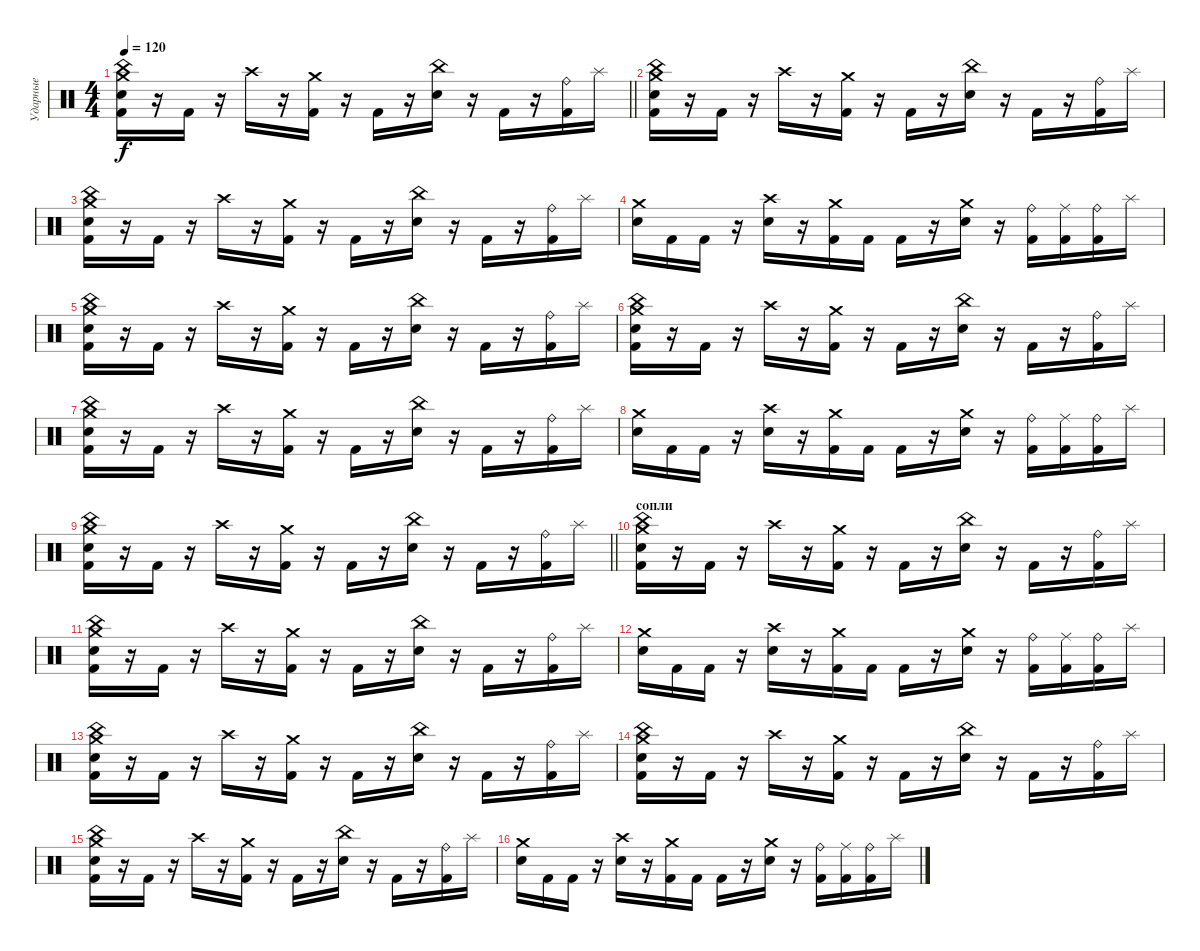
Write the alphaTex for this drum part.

\track ("Ударные" "Ударные") {instrument percussion}
\staff {score}
\articulation defaults
\ts (4 4)
\tempo 120
\clef neutral
\barLineRight lightlight
\ks c
("Crash medium (hit)" "China (hit)" "Electric Snare (hit)" "Kick (hit) 2").16{dy f} r.16 "Kick (hit) 2".16 r.16 "Crash high (hit)".16 r.16 ("Crash medium (hit)" "Kick (hit) 2").16 r.16 "Kick (hit) 2".16 r.16 ("China (hit)" "Electric Snare (hit)").16 r.16 "Kick (hit) 2".16 r.16 ("Ride (bell)" "Kick (hit) 2").16 "Splash (hit)".16 |
("Crash medium (hit)" "China (hit)" "Electric Snare (hit)" "Kick (hit) 2").16 r.16 "Kick (hit) 2".16 r.16 "Crash high (hit)".16 r.16 ("Crash medium (hit)" "Kick (hit) 2").16 r.16 "Kick (hit) 2".16 r.16 ("China (hit)" "Electric Snare (hit)").16 r.16 "Kick (hit) 2".16 r.16 ("Ride (bell)" "Kick (hit) 2").16 "Splash (hit)".16 |
("Crash medium (hit)" "China (hit)" "Electric Snare (hit)" "Kick (hit) 2").16 r.16 "Kick (hit) 2".16 r.16 "Crash high (hit)".16 r.16 ("Crash medium (hit)" "Kick (hit) 2").16 r.16 "Kick (hit) 2".16 r.16 ("China (hit)" "Electric Snare (hit)").16 r.16 "Kick (hit) 2".16 r.16 ("Ride (bell)" "Kick (hit) 2").16 "Splash (hit)".16 |
("Crash medium (hit)" "Electric Snare (hit)").16 "Kick (hit) 2".16 "Kick (hit) 2".16 r.16 ("Crash high (hit)" "Electric Snare (hit)").16 r.16 ("Crash medium (hit)" "Kick (hit) 2").16 "Kick (hit) 2".16 "Kick (hit) 2".16 r.16 ("Crash medium (hit)" "Electric Snare (hit)").16 r.16 ("Ride (bell)" "Kick (hit) 2").16 ("Ride (middle)" "Kick (hit) 2").16 ("Ride (bell)" "Kick (hit) 2").16 "Splash (hit)".16 |
("Crash medium (hit)" "China (hit)" "Electric Snare (hit)" "Kick (hit) 2").16 r.16 "Kick (hit) 2".16 r.16 "Crash high (hit)".16 r.16 ("Crash medium (hit)" "Kick (hit) 2").16 r.16 "Kick (hit) 2".16 r.16 ("China (hit)" "Electric Snare (hit)").16 r.16 "Kick (hit) 2".16 r.16 ("Ride (bell)" "Kick (hit) 2").16 "Splash (hit)".16 |
("Crash medium (hit)" "China (hit)" "Electric Snare (hit)" "Kick (hit) 2").16 r.16 "Kick (hit) 2".16 r.16 "Crash high (hit)".16 r.16 ("Crash medium (hit)" "Kick (hit) 2").16 r.16 "Kick (hit) 2".16 r.16 ("China (hit)" "Electric Snare (hit)").16 r.16 "Kick (hit) 2".16 r.16 ("Ride (bell)" "Kick (hit) 2").16 "Splash (hit)".16 |
("Crash medium (hit)" "China (hit)" "Electric Snare (hit)" "Kick (hit) 2").16 r.16 "Kick (hit) 2".16 r.16 "Crash high (hit)".16 r.16 ("Crash medium (hit)" "Kick (hit) 2").16 r.16 "Kick (hit) 2".16 r.16 ("China (hit)" "Electric Snare (hit)").16 r.16 "Kick (hit) 2".16 r.16 ("Ride (bell)" "Kick (hit) 2").16 "Splash (hit)".16 |
("Crash medium (hit)" "Electric Snare (hit)").16 "Kick (hit) 2".16 "Kick (hit) 2".16 r.16 ("Crash high (hit)" "Electric Snare (hit)").16 r.16 ("Crash medium (hit)" "Kick (hit) 2").16 "Kick (hit) 2".16 "Kick (hit) 2".16 r.16 ("Crash medium (hit)" "Electric Snare (hit)").16 r.16 ("Ride (bell)" "Kick (hit) 2").16 ("Ride (middle)" "Kick (hit) 2").16 ("Ride (bell)" "Kick (hit) 2").16 "Splash (hit)".16 |
\barLineRight lightlight
("Crash medium (hit)" "China (hit)" "Electric Snare (hit)" "Kick (hit) 2").16 r.16 "Kick (hit) 2".16 r.16 "Crash high (hit)".16 r.16 ("Crash medium (hit)" "Kick (hit) 2").16 r.16 "Kick (hit) 2".16 r.16 ("China (hit)" "Electric Snare (hit)").16 r.16 "Kick (hit) 2".16 r.16 ("Ride (bell)" "Kick (hit) 2").16 "Splash (hit)".16 |
\section ("" "сопли")
("Crash medium (hit)" "China (hit)" "Electric Snare (hit)" "Kick (hit) 2").16 r.16 "Kick (hit) 2".16 r.16 "Crash high (hit)".16 r.16 ("Crash medium (hit)" "Kick (hit) 2").16 r.16 "Kick (hit) 2".16 r.16 ("China (hit)" "Electric Snare (hit)").16 r.16 "Kick (hit) 2".16 r.16 ("Ride (bell)" "Kick (hit) 2").16 "Splash (hit)".16 |
("Crash medium (hit)" "China (hit)" "Electric Snare (hit)" "Kick (hit) 2").16 r.16 "Kick (hit) 2".16 r.16 "Crash high (hit)".16 r.16 ("Crash medium (hit)" "Kick (hit) 2").16 r.16 "Kick (hit) 2".16 r.16 ("China (hit)" "Electric Snare (hit)").16 r.16 "Kick (hit) 2".16 r.16 ("Ride (bell)" "Kick (hit) 2").16 "Splash (hit)".16 |
("Crash medium (hit)" "Electric Snare (hit)").16 "Kick (hit) 2".16 "Kick (hit) 2".16 r.16 ("Crash high (hit)" "Electric Snare (hit)").16 r.16 ("Crash medium (hit)" "Kick (hit) 2").16 "Kick (hit) 2".16 "Kick (hit) 2".16 r.16 ("Crash medium (hit)" "Electric Snare (hit)").16 r.16 ("Ride (bell)" "Kick (hit) 2").16 ("Ride (middle)" "Kick (hit) 2").16 ("Ride (bell)" "Kick (hit) 2").16 "Splash (hit)".16 |
("Crash medium (hit)" "China (hit)" "Electric Snare (hit)" "Kick (hit) 2").16 r.16 "Kick (hit) 2".16 r.16 "Crash high (hit)".16 r.16 ("Crash medium (hit)" "Kick (hit) 2").16 r.16 "Kick (hit) 2".16 r.16 ("China (hit)" "Electric Snare (hit)").16 r.16 "Kick (hit) 2".16 r.16 ("Ride (bell)" "Kick (hit) 2").16 "Splash (hit)".16 |
("Crash medium (hit)" "China (hit)" "Electric Snare (hit)" "Kick (hit) 2").16 r.16 "Kick (hit) 2".16 r.16 "Crash high (hit)".16 r.16 ("Crash medium (hit)" "Kick (hit) 2").16 r.16 "Kick (hit) 2".16 r.16 ("China (hit)" "Electric Snare (hit)").16 r.16 "Kick (hit) 2".16 r.16 ("Ride (bell)" "Kick (hit) 2").16 "Splash (hit)".16 |
("Crash medium (hit)" "China (hit)" "Electric Snare (hit)" "Kick (hit) 2").16 r.16 "Kick (hit) 2".16 r.16 "Crash high (hit)".16 r.16 ("Crash medium (hit)" "Kick (hit) 2").16 r.16 "Kick (hit) 2".16 r.16 ("China (hit)" "Electric Snare (hit)").16 r.16 "Kick (hit) 2".16 r.16 ("Ride (bell)" "Kick (hit) 2").16 "Splash (hit)".16 |
("Crash medium (hit)" "Electric Snare (hit)").16 "Kick (hit) 2".16 "Kick (hit) 2".16 r.16 ("Crash high (hit)" "Electric Snare (hit)").16 r.16 ("Crash medium (hit)" "Kick (hit) 2").16 "Kick (hit) 2".16 "Kick (hit) 2".16 r.16 ("Crash medium (hit)" "Electric Snare (hit)").16 r.16 ("Ride (bell)" "Kick (hit) 2").16 ("Ride (middle)" "Kick (hit) 2").16 ("Ride (bell)" "Kick (hit) 2").16 "Splash (hit)".16
